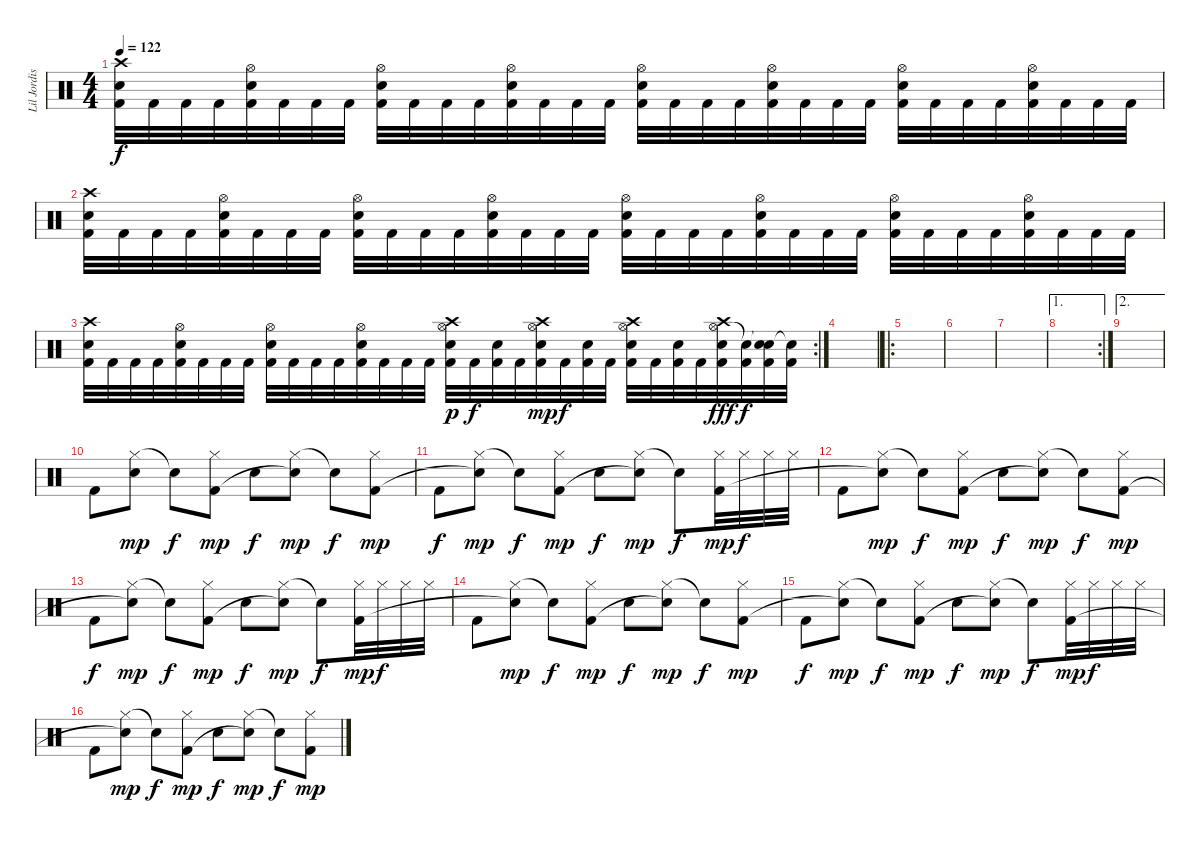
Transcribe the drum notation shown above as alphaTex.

\track ("Lil Jordison" "Lil Jordis") {instrument percussion}
\staff {score}
\articulation defaults
\ts (4 4)
\tempo 122
\clef neutral
\ks c
("Crash high (hit)" "Electric Snare (hit)" "Kick (hit) 2").32{dy f} "Kick (hit) 2".32 "Kick (hit) 2".32 "Kick (hit) 2".32 ("Hi-Hat (open)" "Electric Snare (hit)" "Kick (hit) 2").32 "Kick (hit) 2".32 "Kick (hit) 2".32 "Kick (hit) 2".32 ("Hi-Hat (open)" "Electric Snare (hit)" "Kick (hit) 2").32 "Kick (hit) 2".32 "Kick (hit) 2".32 "Kick (hit) 2".32 ("Hi-Hat (open)" "Electric Snare (hit)" "Kick (hit) 2").32 "Kick (hit) 2".32 "Kick (hit) 2".32 "Kick (hit) 2".32 ("Hi-Hat (open)" "Electric Snare (hit)" "Kick (hit) 2").32 "Kick (hit) 2".32 "Kick (hit) 2".32 "Kick (hit) 2".32 ("Hi-Hat (open)" "Electric Snare (hit)" "Kick (hit) 2").32 "Kick (hit) 2".32 "Kick (hit) 2".32 "Kick (hit) 2".32 ("Hi-Hat (open)" "Electric Snare (hit)" "Kick (hit) 2").32 "Kick (hit) 2".32 "Kick (hit) 2".32 "Kick (hit) 2".32 ("Hi-Hat (open)" "Electric Snare (hit)" "Kick (hit) 2").32 "Kick (hit) 2".32 "Kick (hit) 2".32 "Kick (hit) 2".32 |
("Crash high (hit)" "Electric Snare (hit)" "Kick (hit) 2").32 "Kick (hit) 2".32 "Kick (hit) 2".32 "Kick (hit) 2".32 ("Hi-Hat (open)" "Electric Snare (hit)" "Kick (hit) 2").32 "Kick (hit) 2".32 "Kick (hit) 2".32 "Kick (hit) 2".32 ("Hi-Hat (open)" "Electric Snare (hit)" "Kick (hit) 2").32 "Kick (hit) 2".32 "Kick (hit) 2".32 "Kick (hit) 2".32 ("Hi-Hat (open)" "Electric Snare (hit)" "Kick (hit) 2").32 "Kick (hit) 2".32 "Kick (hit) 2".32 "Kick (hit) 2".32 ("Hi-Hat (open)" "Electric Snare (hit)" "Kick (hit) 2").32 "Kick (hit) 2".32 "Kick (hit) 2".32 "Kick (hit) 2".32 ("Hi-Hat (open)" "Electric Snare (hit)" "Kick (hit) 2").32 "Kick (hit) 2".32 "Kick (hit) 2".32 "Kick (hit) 2".32 ("Hi-Hat (open)" "Electric Snare (hit)" "Kick (hit) 2").32 "Kick (hit) 2".32 "Kick (hit) 2".32 "Kick (hit) 2".32 ("Hi-Hat (open)" "Electric Snare (hit)" "Kick (hit) 2").32 "Kick (hit) 2".32 "Kick (hit) 2".32 "Kick (hit) 2".32 |
\rc 2
("Crash high (hit)" "Electric Snare (hit)" "Kick (hit) 2").32 "Kick (hit) 2".32 "Kick (hit) 2".32 "Kick (hit) 2".32 ("Hi-Hat (open)" "Electric Snare (hit)" "Kick (hit) 2").32 "Kick (hit) 2".32 "Kick (hit) 2".32 "Kick (hit) 2".32 ("Hi-Hat (open)" "Electric Snare (hit)" "Kick (hit) 2").32 "Kick (hit) 2".32 "Kick (hit) 2".32 "Kick (hit) 2".32 ("Hi-Hat (open)" "Electric Snare (hit)" "Kick (hit) 2").32 "Kick (hit) 2".32 "Kick (hit) 2".32 "Kick (hit) 2".32 ("Hi-Hat (open)" "Crash high (hit)" "Electric Snare (hit)" "Kick (hit) 2").32{dy p} "Kick (hit) 2".32{dy f} ("Electric Snare (hit)" "Kick (hit) 2").32 "Kick (hit) 2".32 ("Hi-Hat (open)" "Crash high (hit)" "Electric Snare (hit)" "Kick (hit) 2").32{dy mp} "Kick (hit) 2".32{dy f} ("Electric Snare (hit)" "Kick (hit) 2").32 "Kick (hit) 2".32 ("Hi-Hat (open)" "Crash high (hit)" "Electric Snare (hit)" "Kick (hit) 2").32 "Kick (hit) 2".32 ("Electric Snare (hit)" "Kick (hit) 2").32 "Kick (hit) 2".32 ("Hi-Hat (open)" "Crash high (hit)" "Electric Snare (hit)" "Kick (hit) 2").32{dy fff} ("Snare (hit)"{t} "Kick (hit) 2").32{dy f} ("Snare (hit)"{t} "Electric Snare (hit)" "Kick (hit) 2").32 ("Snare (hit)"{t} "Kick (hit) 2").32 |
|
\ro
|
|
|
\ae 1
\rc 2
|
\ae 2
|
"Kick (hit) 2".8 ("Hi-Hat (closed)" "Snare (hit)").8{dy mp} "Snare (hit)"{t}.8{dy f} ("Hi-Hat (closed)" "Kick (hit) 2").8{dy mp} "Electric Snare (hit)".8{dy f} ("Hi-Hat (closed)" "Snare (hit)"{t}).8{dy mp} "Snare (hit)"{t}.8{dy f} ("Hi-Hat (closed)" "Kick (hit) 2").8{dy mp} |
"Kick (hit) 2".8{dy f} ("Hi-Hat (closed)" "Snare (hit)"{t}).8{dy mp} "Snare (hit)"{t}.8{dy f} ("Hi-Hat (closed)" "Kick (hit) 2").8{dy mp} "Electric Snare (hit)".8{dy f} ("Hi-Hat (closed)" "Snare (hit)"{t}).8{dy mp} "Snare (hit)"{t}.8{dy f} ("Hi-Hat (closed)" "Kick (hit) 2").32{dy mp} "Hi-Hat (closed)".32{dy f} "Hi-Hat (closed)".32 "Hi-Hat (closed)".32 |
"Kick (hit) 2".8 ("Hi-Hat (closed)" "Snare (hit)"{t}).8{dy mp} "Snare (hit)"{t}.8{dy f} ("Hi-Hat (closed)" "Kick (hit) 2").8{dy mp} "Electric Snare (hit)".8{dy f} ("Hi-Hat (closed)" "Snare (hit)"{t}).8{dy mp} "Snare (hit)"{t}.8{dy f} ("Hi-Hat (closed)" "Kick (hit) 2").8{dy mp} |
"Kick (hit) 2".8{dy f} ("Hi-Hat (closed)" "Snare (hit)"{t}).8{dy mp} "Snare (hit)"{t}.8{dy f} ("Hi-Hat (closed)" "Kick (hit) 2").8{dy mp} "Electric Snare (hit)".8{dy f} ("Hi-Hat (closed)" "Snare (hit)"{t}).8{dy mp} "Snare (hit)"{t}.8{dy f} ("Hi-Hat (closed)" "Kick (hit) 2").32{dy mp} "Hi-Hat (closed)".32{dy f} "Hi-Hat (closed)".32 "Hi-Hat (closed)".32 |
"Kick (hit) 2".8 ("Hi-Hat (closed)" "Snare (hit)"{t}).8{dy mp} "Snare (hit)"{t}.8{dy f} ("Hi-Hat (closed)" "Kick (hit) 2").8{dy mp} "Electric Snare (hit)".8{dy f} ("Hi-Hat (closed)" "Snare (hit)"{t}).8{dy mp} "Snare (hit)"{t}.8{dy f} ("Hi-Hat (closed)" "Kick (hit) 2").8{dy mp} |
"Kick (hit) 2".8{dy f} ("Hi-Hat (closed)" "Snare (hit)"{t}).8{dy mp} "Snare (hit)"{t}.8{dy f} ("Hi-Hat (closed)" "Kick (hit) 2").8{dy mp} "Electric Snare (hit)".8{dy f} ("Hi-Hat (closed)" "Snare (hit)"{t}).8{dy mp} "Snare (hit)"{t}.8{dy f} ("Hi-Hat (closed)" "Kick (hit) 2").32{dy mp} "Hi-Hat (closed)".32{dy f} "Hi-Hat (closed)".32 "Hi-Hat (closed)".32 |
"Kick (hit) 2".8 ("Hi-Hat (closed)" "Snare (hit)"{t}).8{dy mp} "Snare (hit)"{t}.8{dy f} ("Hi-Hat (closed)" "Kick (hit) 2").8{dy mp} "Electric Snare (hit)".8{dy f} ("Hi-Hat (closed)" "Snare (hit)"{t}).8{dy mp} "Snare (hit)"{t}.8{dy f} ("Hi-Hat (closed)" "Kick (hit) 2").8{dy mp}
